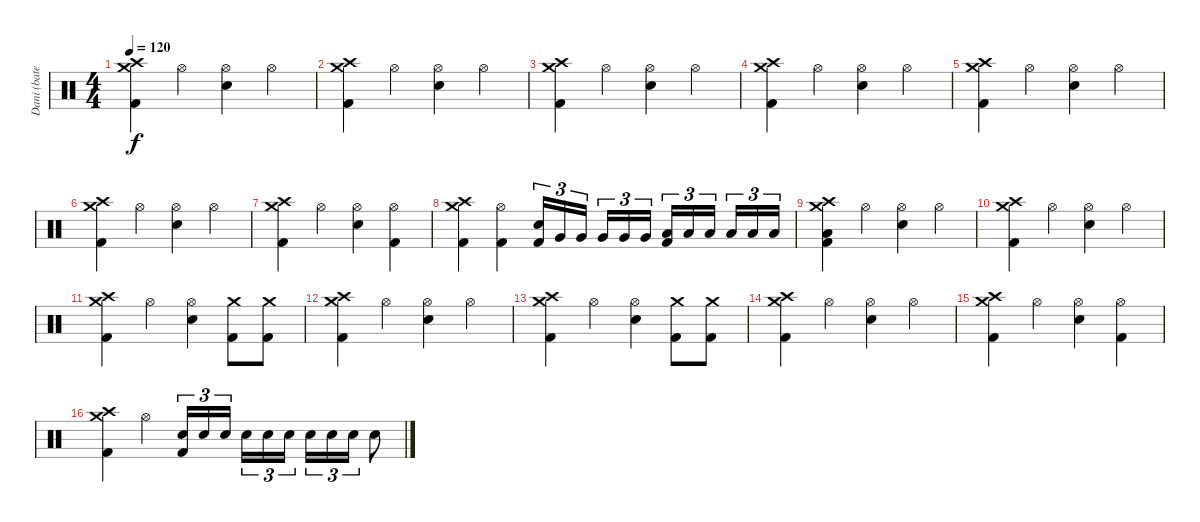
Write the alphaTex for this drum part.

\track ("Dani (batería)" "Dani (bate") {instrument percussion}
\staff {score}
\articulation defaults
\ts (4 4)
\tempo 120
\clef neutral
\ks c
("Crash high (hit)" "Crash medium (hit)" "Kick (hit) 2").4{dy f volume 16} "Hi-Hat (open)".4 ("Hi-Hat (open)" "Electric Snare (hit)").4 "Hi-Hat (open)".4 |
("Crash high (hit)" "Crash medium (hit)" "Kick (hit) 2").4{volume 15} "Hi-Hat (open)".4 ("Hi-Hat (open)" "Electric Snare (hit)").4 "Hi-Hat (open)".4 |
("Crash high (hit)" "Crash medium (hit)" "Kick (hit) 2").4{volume 14} "Hi-Hat (open)".4 ("Hi-Hat (open)" "Electric Snare (hit)").4 "Hi-Hat (open)".4 |
("Crash high (hit)" "Crash medium (hit)" "Kick (hit) 2").4{volume 13} "Hi-Hat (open)".4 ("Hi-Hat (open)" "Electric Snare (hit)").4 "Hi-Hat (open)".4 |
("Crash high (hit)" "Crash medium (hit)" "Kick (hit) 2").4{volume 12} "Hi-Hat (open)".4 ("Hi-Hat (open)" "Electric Snare (hit)").4 "Hi-Hat (open)".4 |
("Crash high (hit)" "Crash medium (hit)" "Kick (hit) 2").4{volume 11} "Hi-Hat (open)".4 ("Hi-Hat (open)" "Electric Snare (hit)").4 "Hi-Hat (open)".4 |
("Crash high (hit)" "Crash medium (hit)" "Kick (hit) 2").4{volume 10} "Hi-Hat (open)".4 ("Hi-Hat (open)" "Electric Snare (hit)").4 ("Hi-Hat (open)" "Kick (hit) 2").4 |
("Crash high (hit)" "Crash medium (hit)" "Kick (hit) 2").4{volume 9} ("Hi-Hat (open)" "Kick (hit) 2").4 ("Electric Snare (hit)" "Kick (hit) 2").16{tu (3 2)} "Very Low Tom (hit)".16{tu (3 2)} "Very Low Tom (hit)".16{tu (3 2)} "Very Low Tom (hit)".16{tu (3 2)} "Very Low Tom (hit)".16{tu (3 2)} "Very Low Tom (hit)".16{tu (3 2)} ("Low Floor Tom (hit)" "Kick (hit) 2").16{tu (3 2)} "Low Floor Tom (hit)".16{tu (3 2)} "Low Floor Tom (hit)".16{tu (3 2)} "Low Floor Tom (hit)".16{tu (3 2)} "Low Floor Tom (hit)".16{tu (3 2)} "Low Floor Tom (hit)".16{tu (3 2)} |
("Crash high (hit)" "Crash medium (hit)" "Low Floor Tom (hit)" "Kick (hit) 2").4{volume 8} "Hi-Hat (open)".4 ("Hi-Hat (open)" "Electric Snare (hit)").4 "Hi-Hat (open)".4 |
("Crash high (hit)" "Crash medium (hit)" "Kick (hit) 2").4{volume 7} "Hi-Hat (open)".4 ("Hi-Hat (open)" "Electric Snare (hit)").4 "Hi-Hat (open)".4 |
("Crash high (hit)" "Crash medium (hit)" "Kick (hit) 2").4{volume 6} "Hi-Hat (open)".4 ("Hi-Hat (open)" "Electric Snare (hit)").4 ("Crash medium (hit)" "Kick (hit) 2").8 ("Crash medium (hit)" "Kick (hit) 2").8 |
("Crash high (hit)" "Crash medium (hit)" "Kick (hit) 2").4{volume 5} "Hi-Hat (open)".4 ("Hi-Hat (open)" "Electric Snare (hit)").4 "Hi-Hat (open)".4 |
("Crash high (hit)" "Crash medium (hit)" "Kick (hit) 2").4{volume 4} "Hi-Hat (open)".4 ("Hi-Hat (open)" "Electric Snare (hit)").4 ("Crash medium (hit)" "Kick (hit) 2").8 ("Crash medium (hit)" "Kick (hit) 2").8 |
("Crash high (hit)" "Crash medium (hit)" "Kick (hit) 2").4{volume 3} "Hi-Hat (open)".4 ("Hi-Hat (open)" "Electric Snare (hit)").4 "Hi-Hat (open)".4 |
("Crash high (hit)" "Crash medium (hit)" "Kick (hit) 2").4{volume 2} "Hi-Hat (open)".4 ("Hi-Hat (open)" "Electric Snare (hit)").4 ("Hi-Hat (open)" "Kick (hit) 2").4 |
("Crash high (hit)" "Crash medium (hit)" "Kick (hit) 2").4{volume 1} "Hi-Hat (open)".4 ("Electric Snare (hit)" "Kick (hit) 2").16{tu (3 2)} "Electric Snare (hit)".16{tu (3 2)} "Electric Snare (hit)".16{tu (3 2)} "Electric Snare (hit)".16{tu (3 2)} "Electric Snare (hit)".16{tu (3 2)} "Electric Snare (hit)".16{tu (3 2)} "Electric Snare (hit)".16{tu (3 2)} "Electric Snare (hit)".16{tu (3 2)} "Electric Snare (hit)".16{tu (3 2)} "Electric Snare (hit)".8
